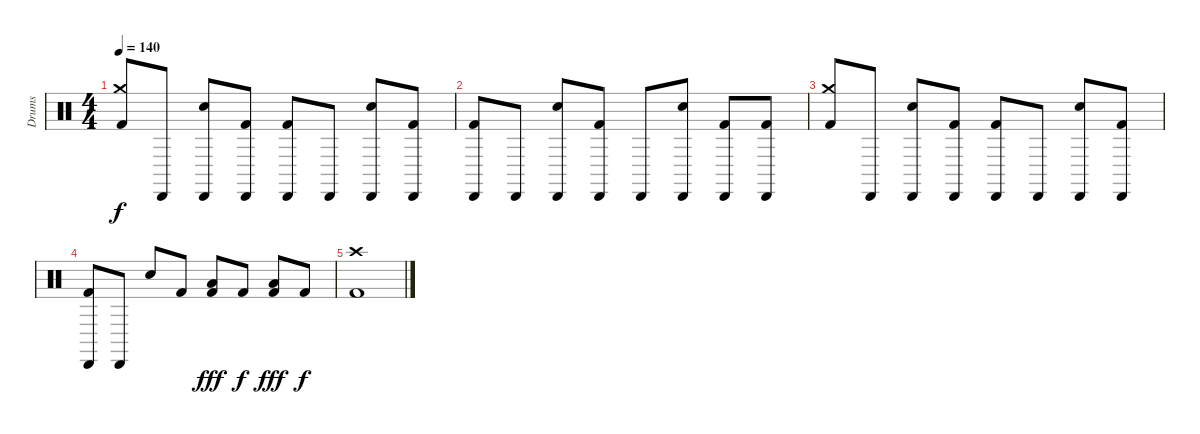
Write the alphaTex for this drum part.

\track ("Drums" "Drums") {instrument percussion}
\staff {score}
\articulation defaults
\ts (4 4)
\tempo 140
\clef neutral
\ks c
("Crash medium (hit)" "Kick (hit) 2").8{dy f} "Cabasa (hit)".8 ("Cabasa (hit)" "Electric Snare (hit)").8 ("Cabasa (hit)" "Kick (hit) 2").8 ("Cabasa (hit)" "Kick (hit) 2").8 "Cabasa (hit)".8 ("Cabasa (hit)" "Electric Snare (hit)").8 ("Cabasa (hit)" "Kick (hit) 2").8 |
("Cabasa (hit)" "Kick (hit) 2").8 "Cabasa (hit)".8 ("Cabasa (hit)" "Electric Snare (hit)").8 ("Cabasa (hit)" "Kick (hit) 2").8 "Cabasa (hit)".8 ("Cabasa (hit)" "Electric Snare (hit)").8 ("Cabasa (hit)" "Kick (hit) 2").8 ("Cabasa (hit)" "Kick (hit) 2").8 |
("Crash medium (hit)" "Kick (hit) 2").8 "Cabasa (hit)".8 ("Cabasa (hit)" "Electric Snare (hit)").8 ("Cabasa (hit)" "Kick (hit) 2").8 ("Cabasa (hit)" "Kick (hit) 2").8 "Cabasa (hit)".8 ("Cabasa (hit)" "Electric Snare (hit)").8 ("Cabasa (hit)" "Kick (hit) 2").8 |
("Cabasa (hit)" "Kick (hit) 2").8 "Cabasa (hit)".8 "Electric Snare (hit)".8 "Kick (hit) 2".8 ("Low Floor Tom (hit)" "Kick (hit) 2").8{dy fff} "Kick (hit) 2".8{dy f} ("Low Floor Tom (hit)" "Kick (hit) 2").8{dy fff} "Kick (hit) 2".8{dy f} |
("Crash high (hit)" "Kick (hit) 2").1
